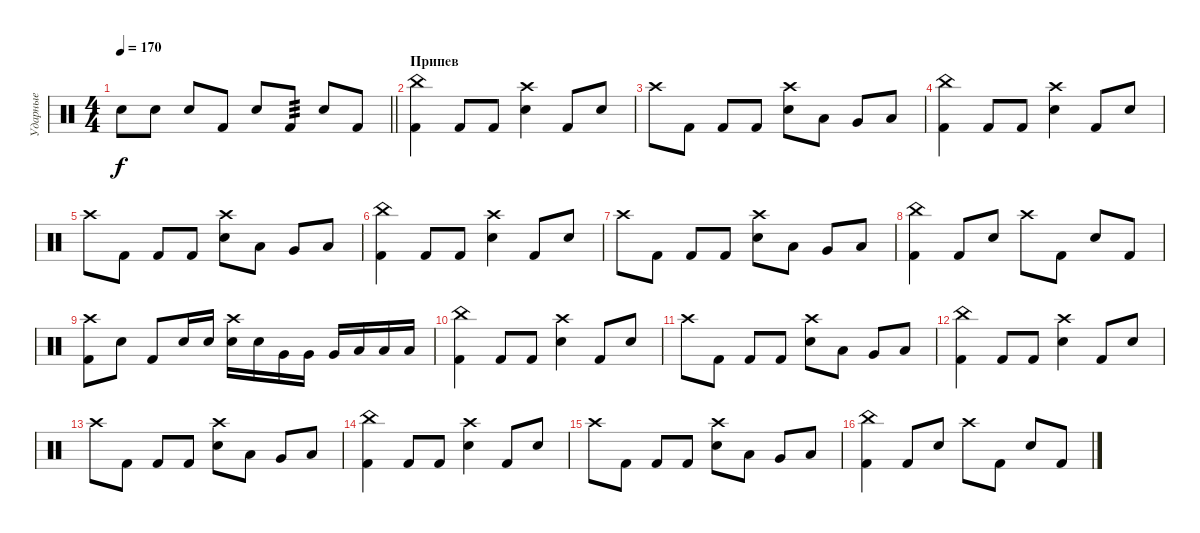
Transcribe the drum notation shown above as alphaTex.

\track ("Ударные" "Ударные") {instrument percussion}
\staff {score}
\articulation defaults
\ts (4 4)
\tempo 170
\clef neutral
\barLineRight lightlight
\ks c "Electric Snare (hit)".8{dy f} "Electric Snare (hit)".8 "Electric Snare (hit)".8 "Kick (hit) 2".8 "Electric Snare (hit)".8 "Kick (hit) 2".8{tp 3} "Electric Snare (hit)".8 "Kick (hit) 2".8
|
\section ("" "Припев")
("Kick (hit) 2" "China (hit)").4 "Kick (hit) 2".8 "Kick (hit) 2".8 ("Electric Snare (hit)" "Crash high (hit)").4 "Kick (hit) 2".8 "Electric Snare (hit)".8 |
"Crash high (hit)".8 "Kick (hit) 2".8 "Kick (hit) 2".8 "Kick (hit) 2".8 ("Electric Snare (hit)" "Crash high (hit)").8 "Low Tom (hit)".8 "Very Low Tom (hit)".8 "Low Floor Tom (hit)".8 |
("Kick (hit) 2" "China (hit)").4 "Kick (hit) 2".8 "Kick (hit) 2".8 ("Electric Snare (hit)" "Crash high (hit)").4 "Kick (hit) 2".8 "Electric Snare (hit)".8 |
"Crash high (hit)".8 "Kick (hit) 2".8 "Kick (hit) 2".8 "Kick (hit) 2".8 ("Electric Snare (hit)" "Crash high (hit)").8 "Low Tom (hit)".8 "Very Low Tom (hit)".8 "Low Floor Tom (hit)".8 |
("Kick (hit) 2" "China (hit)").4 "Kick (hit) 2".8 "Kick (hit) 2".8 ("Electric Snare (hit)" "Crash high (hit)").4 "Kick (hit) 2".8 "Electric Snare (hit)".8 |
"Crash high (hit)".8 "Kick (hit) 2".8 "Kick (hit) 2".8 "Kick (hit) 2".8 ("Electric Snare (hit)" "Crash high (hit)").8 "Low Tom (hit)".8 "Very Low Tom (hit)".8 "Low Floor Tom (hit)".8 |
("Kick (hit) 2" "China (hit)").4 "Kick (hit) 2".8 "Electric Snare (hit)".8 "Crash high (hit)".8 "Kick (hit) 2".8 "Electric Snare (hit)".8 "Kick (hit) 2".8 |
("Kick (hit) 2" "Crash high (hit)").8 "Electric Snare (hit)".8 "Kick (hit) 2".8 "Electric Snare (hit)".16 "Electric Snare (hit)".16 ("Electric Snare (hit)" "Crash high (hit)").16 "Electric Snare (hit)".16 "Very Low Tom (hit)".16 "Very Low Tom (hit)".16 "Very Low Tom (hit)".16 "Low Floor Tom (hit)".16 "Low Floor Tom (hit)".16 "Low Floor Tom (hit)".16 |
("Kick (hit) 2" "China (hit)").4 "Kick (hit) 2".8 "Kick (hit) 2".8 ("Electric Snare (hit)" "Crash high (hit)").4 "Kick (hit) 2".8 "Electric Snare (hit)".8 |
"Crash high (hit)".8 "Kick (hit) 2".8 "Kick (hit) 2".8 "Kick (hit) 2".8 ("Electric Snare (hit)" "Crash high (hit)").8 "Low Tom (hit)".8 "Very Low Tom (hit)".8 "Low Floor Tom (hit)".8 |
("Kick (hit) 2" "China (hit)").4 "Kick (hit) 2".8 "Kick (hit) 2".8 ("Electric Snare (hit)" "Crash high (hit)").4 "Kick (hit) 2".8 "Electric Snare (hit)".8 |
"Crash high (hit)".8 "Kick (hit) 2".8 "Kick (hit) 2".8 "Kick (hit) 2".8 ("Electric Snare (hit)" "Crash high (hit)").8 "Low Tom (hit)".8 "Very Low Tom (hit)".8 "Low Floor Tom (hit)".8 |
("Kick (hit) 2" "China (hit)").4 "Kick (hit) 2".8 "Kick (hit) 2".8 ("Electric Snare (hit)" "Crash high (hit)").4 "Kick (hit) 2".8 "Electric Snare (hit)".8 |
"Crash high (hit)".8 "Kick (hit) 2".8 "Kick (hit) 2".8 "Kick (hit) 2".8 ("Electric Snare (hit)" "Crash high (hit)").8 "Low Tom (hit)".8 "Very Low Tom (hit)".8 "Low Floor Tom (hit)".8 |
("Kick (hit) 2" "China (hit)").4 "Kick (hit) 2".8 "Electric Snare (hit)".8 "Crash high (hit)".8 "Kick (hit) 2".8 "Electric Snare (hit)".8 "Kick (hit) 2".8
